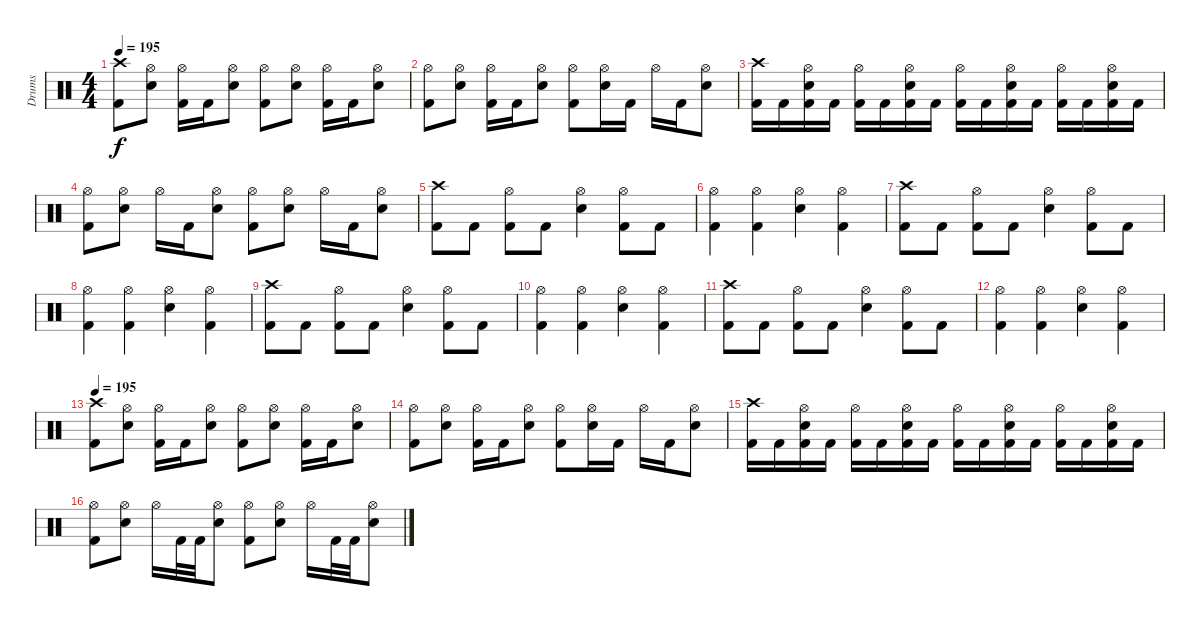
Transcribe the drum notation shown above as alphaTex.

\track ("Drums" "Drums") {instrument percussion}
\staff {score}
\articulation defaults
\ts (4 4)
\tempo 195
\clef neutral
\ks c
("Crash high (hit)" "Kick (hit) 2").8{dy f} ("Hi-Hat (open)" "Snare (hit) 2").8 ("Hi-Hat (open)" "Kick (hit) 2").16 "Kick (hit) 2".16 ("Hi-Hat (open)" "Snare (hit) 2").8 ("Hi-Hat (open)" "Kick (hit) 2").8 ("Hi-Hat (open)" "Snare (hit) 2").8 ("Hi-Hat (open)" "Kick (hit) 2").16 "Kick (hit) 2".16 ("Hi-Hat (open)" "Snare (hit) 2").8 |
("Hi-Hat (open)" "Kick (hit) 2").8 ("Hi-Hat (open)" "Snare (hit) 2").8 ("Hi-Hat (open)" "Kick (hit) 2").16 "Kick (hit) 2".16 ("Hi-Hat (open)" "Snare (hit) 2").8 ("Hi-Hat (open)" "Kick (hit) 2").8 ("Hi-Hat (open)" "Snare (hit) 2").16 "Kick (hit) 2".16 "Hi-Hat (open)".16 "Kick (hit) 2".16 ("Hi-Hat (open)" "Snare (hit) 2").8 |
("Crash high (hit)" "Kick (hit) 2").16 "Kick (hit) 2".16 ("Hi-Hat (open)" "Snare (hit) 2" "Kick (hit) 2").16 "Kick (hit) 2".16 ("Hi-Hat (open)" "Kick (hit) 2").16 "Kick (hit) 2".16 ("Hi-Hat (open)" "Snare (hit) 2" "Kick (hit) 2").16 "Kick (hit) 2".16 ("Hi-Hat (open)" "Kick (hit) 2").16 "Kick (hit) 2".16 ("Hi-Hat (open)" "Snare (hit) 2" "Kick (hit) 2").16 "Kick (hit) 2".16 ("Hi-Hat (open)" "Kick (hit) 2").16 "Kick (hit) 2".16 ("Hi-Hat (open)" "Snare (hit) 2" "Kick (hit) 2").16 "Kick (hit) 2".16 |
("Hi-Hat (open)" "Kick (hit) 2").8 ("Hi-Hat (open)" "Snare (hit) 2").8 "Hi-Hat (open)".16 "Kick (hit) 2".16 ("Hi-Hat (open)" "Snare (hit) 2").8 ("Hi-Hat (open)" "Kick (hit) 2").8 ("Hi-Hat (open)" "Snare (hit) 2").8 "Hi-Hat (open)".16 "Kick (hit) 2".16 ("Hi-Hat (open)" "Snare (hit) 2").8 |
("Crash high (hit)" "Kick (hit) 2").8 "Kick (hit) 2".8 ("Hi-Hat (open)" "Kick (hit) 2").8 "Kick (hit) 2".8 ("Hi-Hat (open)" "Snare (hit) 2").4 ("Hi-Hat (open)" "Kick (hit) 2").8 "Kick (hit) 2".8 |
("Hi-Hat (open)" "Kick (hit) 2").4 ("Hi-Hat (open)" "Kick (hit) 2").4 ("Hi-Hat (open)" "Snare (hit) 2").4 ("Hi-Hat (open)" "Kick (hit) 2").4 |
("Crash high (hit)" "Kick (hit) 2").8 "Kick (hit) 2".8 ("Hi-Hat (open)" "Kick (hit) 2").8 "Kick (hit) 2".8 ("Hi-Hat (open)" "Snare (hit) 2").4 ("Hi-Hat (open)" "Kick (hit) 2").8 "Kick (hit) 2".8 |
("Hi-Hat (open)" "Kick (hit) 2").4 ("Hi-Hat (open)" "Kick (hit) 2").4 ("Hi-Hat (open)" "Snare (hit) 2").4 ("Hi-Hat (open)" "Kick (hit) 2").4 |
("Crash high (hit)" "Kick (hit) 2").8 "Kick (hit) 2".8 ("Hi-Hat (open)" "Kick (hit) 2").8 "Kick (hit) 2".8 ("Hi-Hat (open)" "Snare (hit) 2").4 ("Hi-Hat (open)" "Kick (hit) 2").8 "Kick (hit) 2".8 |
("Hi-Hat (open)" "Kick (hit) 2").4 ("Hi-Hat (open)" "Kick (hit) 2").4 ("Hi-Hat (open)" "Snare (hit) 2").4 ("Hi-Hat (open)" "Kick (hit) 2").4 |
("Crash high (hit)" "Kick (hit) 2").8 "Kick (hit) 2".8 ("Hi-Hat (open)" "Kick (hit) 2").8 "Kick (hit) 2".8 ("Hi-Hat (open)" "Snare (hit) 2").4 ("Hi-Hat (open)" "Kick (hit) 2").8 "Kick (hit) 2".8 |
("Hi-Hat (open)" "Kick (hit) 2").4 ("Hi-Hat (open)" "Kick (hit) 2").4 ("Hi-Hat (open)" "Snare (hit) 2").4 ("Hi-Hat (open)" "Kick (hit) 2").4 |
\tempo 195
("Crash high (hit)" "Kick (hit) 2").8 ("Hi-Hat (open)" "Snare (hit) 2").8 ("Hi-Hat (open)" "Kick (hit) 2").16 "Kick (hit) 2".16 ("Hi-Hat (open)" "Snare (hit) 2").8 ("Hi-Hat (open)" "Kick (hit) 2").8 ("Hi-Hat (open)" "Snare (hit) 2").8 ("Hi-Hat (open)" "Kick (hit) 2").16 "Kick (hit) 2".16 ("Hi-Hat (open)" "Snare (hit) 2").8 |
("Hi-Hat (open)" "Kick (hit) 2").8 ("Hi-Hat (open)" "Snare (hit) 2").8 ("Hi-Hat (open)" "Kick (hit) 2").16 "Kick (hit) 2".16 ("Hi-Hat (open)" "Snare (hit) 2").8 ("Hi-Hat (open)" "Kick (hit) 2").8 ("Hi-Hat (open)" "Snare (hit) 2").16 "Kick (hit) 2".16 "Hi-Hat (open)".16 "Kick (hit) 2".16 ("Hi-Hat (open)" "Snare (hit) 2").8 |
("Crash high (hit)" "Kick (hit) 2").16 "Kick (hit) 2".16 ("Hi-Hat (open)" "Snare (hit) 2" "Kick (hit) 2").16 "Kick (hit) 2".16 ("Hi-Hat (open)" "Kick (hit) 2").16 "Kick (hit) 2".16 ("Hi-Hat (open)" "Snare (hit) 2" "Kick (hit) 2").16 "Kick (hit) 2".16 ("Hi-Hat (open)" "Kick (hit) 2").16 "Kick (hit) 2".16 ("Hi-Hat (open)" "Snare (hit) 2" "Kick (hit) 2").16 "Kick (hit) 2".16 ("Hi-Hat (open)" "Kick (hit) 2").16 "Kick (hit) 2".16 ("Hi-Hat (open)" "Snare (hit) 2" "Kick (hit) 2").16 "Kick (hit) 2".16 |
("Hi-Hat (open)" "Kick (hit) 2").8 ("Hi-Hat (open)" "Snare (hit) 2").8 "Hi-Hat (open)".16 "Kick (hit) 2".32 "Kick (hit) 2".32 ("Hi-Hat (open)" "Snare (hit) 2").8 ("Hi-Hat (open)" "Kick (hit) 2").8 ("Hi-Hat (open)" "Snare (hit) 2").8 "Hi-Hat (open)".16 "Kick (hit) 2".32 "Kick (hit) 2".32 ("Hi-Hat (open)" "Snare (hit) 2").8
